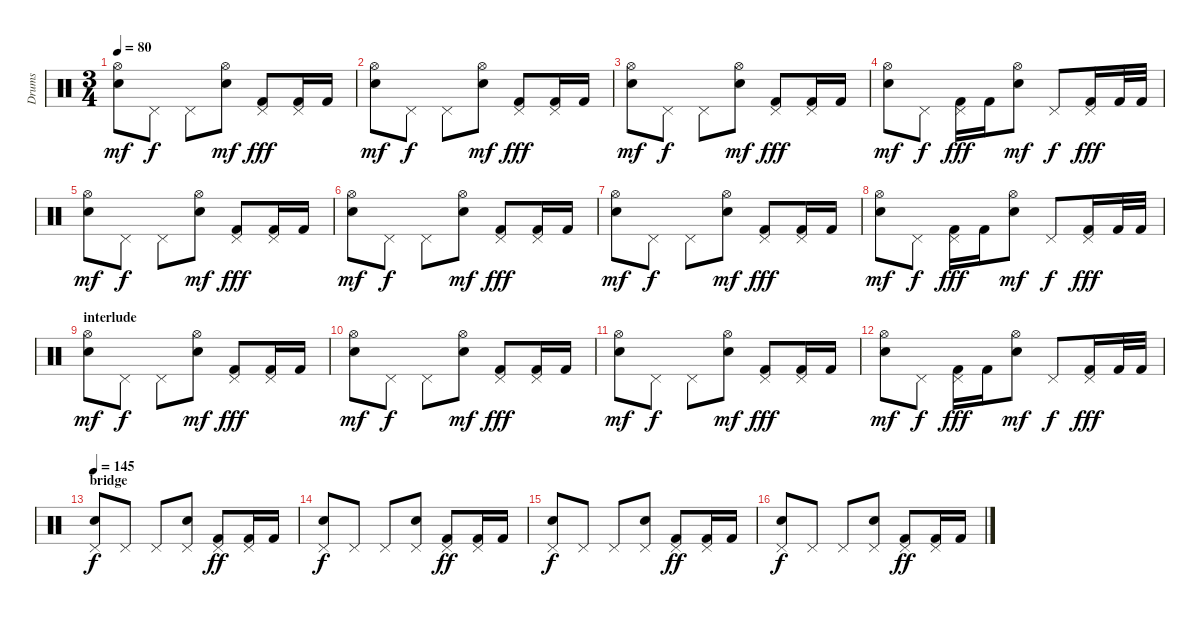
\track ("Drums" "Drums") {instrument percussion}
\staff {score}
\articulation defaults
\ts (3 4)
\tempo 80
\clef neutral
\ks c
("Hi-Hat (open)" "Snare (hit) 2").8{dy mf} "Pedal Hi-Hat (hit)".8{dy f} "Pedal Hi-Hat (hit)".8 ("Hi-Hat (open)" "Snare (hit) 2").8{dy mf} ("Pedal Hi-Hat (hit)" "Kick (hit) 2").8{dy fff} ("Pedal Hi-Hat (hit)" "Kick (hit) 2").16 "Kick (hit) 2".16 |
("Hi-Hat (open)" "Snare (hit) 2").8{dy mf} "Pedal Hi-Hat (hit)".8{dy f} "Pedal Hi-Hat (hit)".8 ("Hi-Hat (open)" "Snare (hit) 2").8{dy mf} ("Pedal Hi-Hat (hit)" "Kick (hit) 2").8{dy fff} ("Pedal Hi-Hat (hit)" "Kick (hit) 2").16 "Kick (hit) 2".16 |
("Hi-Hat (open)" "Snare (hit) 2").8{dy mf} "Pedal Hi-Hat (hit)".8{dy f} "Pedal Hi-Hat (hit)".8 ("Hi-Hat (open)" "Snare (hit) 2").8{dy mf} ("Pedal Hi-Hat (hit)" "Kick (hit) 2").8{dy fff} ("Pedal Hi-Hat (hit)" "Kick (hit) 2").16 "Kick (hit) 2".16 |
("Hi-Hat (open)" "Snare (hit) 2").8{dy mf} "Pedal Hi-Hat (hit)".8{dy f} ("Pedal Hi-Hat (hit)" "Kick (hit) 2").16{dy fff} "Kick (hit) 2".16 ("Hi-Hat (open)" "Snare (hit) 2").8{dy mf} "Pedal Hi-Hat (hit)".8{dy f} ("Pedal Hi-Hat (hit)" "Kick (hit) 2").16{dy fff} "Kick (hit) 2".32 "Kick (hit) 2".32 |
("Hi-Hat (open)" "Snare (hit) 2").8{dy mf} "Pedal Hi-Hat (hit)".8{dy f} "Pedal Hi-Hat (hit)".8 ("Hi-Hat (open)" "Snare (hit) 2").8{dy mf} ("Pedal Hi-Hat (hit)" "Kick (hit) 2").8{dy fff} ("Pedal Hi-Hat (hit)" "Kick (hit) 2").16 "Kick (hit) 2".16 |
("Hi-Hat (open)" "Snare (hit) 2").8{dy mf} "Pedal Hi-Hat (hit)".8{dy f} "Pedal Hi-Hat (hit)".8 ("Hi-Hat (open)" "Snare (hit) 2").8{dy mf} ("Pedal Hi-Hat (hit)" "Kick (hit) 2").8{dy fff} ("Pedal Hi-Hat (hit)" "Kick (hit) 2").16 "Kick (hit) 2".16 |
("Hi-Hat (open)" "Snare (hit) 2").8{dy mf} "Pedal Hi-Hat (hit)".8{dy f} "Pedal Hi-Hat (hit)".8 ("Hi-Hat (open)" "Snare (hit) 2").8{dy mf} ("Pedal Hi-Hat (hit)" "Kick (hit) 2").8{dy fff} ("Pedal Hi-Hat (hit)" "Kick (hit) 2").16 "Kick (hit) 2".16 |
("Hi-Hat (open)" "Snare (hit) 2").8{dy mf} "Pedal Hi-Hat (hit)".8{dy f} ("Pedal Hi-Hat (hit)" "Kick (hit) 2").16{dy fff} "Kick (hit) 2".16 ("Hi-Hat (open)" "Snare (hit) 2").8{dy mf} "Pedal Hi-Hat (hit)".8{dy f} ("Pedal Hi-Hat (hit)" "Kick (hit) 2").16{dy fff} "Kick (hit) 2".32 "Kick (hit) 2".32 |
\section ("" "interlude")
("Hi-Hat (open)" "Snare (hit) 2").8{dy mf} "Pedal Hi-Hat (hit)".8{dy f} "Pedal Hi-Hat (hit)".8 ("Hi-Hat (open)" "Snare (hit) 2").8{dy mf} ("Pedal Hi-Hat (hit)" "Kick (hit) 2").8{dy fff} ("Pedal Hi-Hat (hit)" "Kick (hit) 2").16 "Kick (hit) 2".16 |
("Hi-Hat (open)" "Snare (hit) 2").8{dy mf} "Pedal Hi-Hat (hit)".8{dy f} "Pedal Hi-Hat (hit)".8 ("Hi-Hat (open)" "Snare (hit) 2").8{dy mf} ("Pedal Hi-Hat (hit)" "Kick (hit) 2").8{dy fff} ("Pedal Hi-Hat (hit)" "Kick (hit) 2").16 "Kick (hit) 2".16 |
("Hi-Hat (open)" "Snare (hit) 2").8{dy mf} "Pedal Hi-Hat (hit)".8{dy f} "Pedal Hi-Hat (hit)".8 ("Hi-Hat (open)" "Snare (hit) 2").8{dy mf} ("Pedal Hi-Hat (hit)" "Kick (hit) 2").8{dy fff} ("Pedal Hi-Hat (hit)" "Kick (hit) 2").16 "Kick (hit) 2".16 |
("Hi-Hat (open)" "Snare (hit) 2").8{dy mf} "Pedal Hi-Hat (hit)".8{dy f} ("Pedal Hi-Hat (hit)" "Kick (hit) 2").16{dy fff} "Kick (hit) 2".16 ("Hi-Hat (open)" "Snare (hit) 2").8{dy mf} "Pedal Hi-Hat (hit)".8{dy f} ("Pedal Hi-Hat (hit)" "Kick (hit) 2").16{dy fff} "Kick (hit) 2".32 "Kick (hit) 2".32 |
\section ("" "bridge")
\tempo 145
("Pedal Hi-Hat (hit)" "Snare (hit) 2").8{dy f} "Pedal Hi-Hat (hit)".8 "Pedal Hi-Hat (hit)".8 ("Pedal Hi-Hat (hit)" "Snare (hit) 2").8 ("Kick (hit) 2" "Pedal Hi-Hat (hit)").8{dy ff} ("Kick (hit) 2" "Pedal Hi-Hat (hit)").16 "Kick (hit) 2".16 |
("Pedal Hi-Hat (hit)" "Snare (hit) 2").8{dy f} "Pedal Hi-Hat (hit)".8 "Pedal Hi-Hat (hit)".8 ("Pedal Hi-Hat (hit)" "Snare (hit) 2").8 ("Kick (hit) 2" "Pedal Hi-Hat (hit)").8{dy ff} ("Kick (hit) 2" "Pedal Hi-Hat (hit)").16 "Kick (hit) 2".16 |
("Pedal Hi-Hat (hit)" "Snare (hit) 2").8{dy f} "Pedal Hi-Hat (hit)".8 "Pedal Hi-Hat (hit)".8 ("Pedal Hi-Hat (hit)" "Snare (hit) 2").8 ("Kick (hit) 2" "Pedal Hi-Hat (hit)").8{dy ff} ("Kick (hit) 2" "Pedal Hi-Hat (hit)").16 "Kick (hit) 2".16 |
("Pedal Hi-Hat (hit)" "Snare (hit) 2").8{dy f} "Pedal Hi-Hat (hit)".8 "Pedal Hi-Hat (hit)".8 ("Pedal Hi-Hat (hit)" "Snare (hit) 2").8 ("Kick (hit) 2" "Pedal Hi-Hat (hit)").8{dy ff} ("Kick (hit) 2" "Pedal Hi-Hat (hit)").16 "Kick (hit) 2".16
